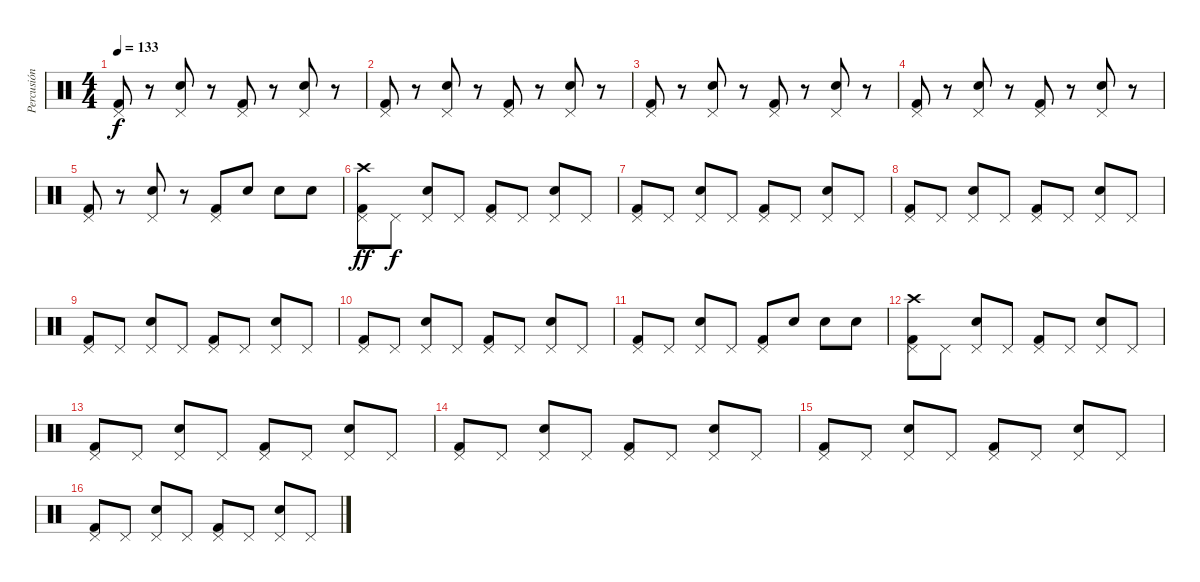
\track ("Percusión" "Percusión") {instrument percussion}
\staff {score}
\articulation defaults
\ts (4 4)
\tempo 133
\clef neutral
\ks c
("Pedal Hi-Hat (hit)" "Kick (hit) 2").8{dy f} r.8 ("Electric Snare (hit)" "Pedal Hi-Hat (hit)").8 r.8 ("Pedal Hi-Hat (hit)" "Kick (hit) 2").8 r.8 ("Electric Snare (hit)" "Pedal Hi-Hat (hit)").8 r.8 |
("Pedal Hi-Hat (hit)" "Kick (hit) 2").8 r.8 ("Electric Snare (hit)" "Pedal Hi-Hat (hit)").8 r.8 ("Pedal Hi-Hat (hit)" "Kick (hit) 2").8 r.8 ("Electric Snare (hit)" "Pedal Hi-Hat (hit)").8 r.8 |
("Pedal Hi-Hat (hit)" "Kick (hit) 2").8 r.8 ("Electric Snare (hit)" "Pedal Hi-Hat (hit)").8 r.8 ("Pedal Hi-Hat (hit)" "Kick (hit) 2").8 r.8 ("Electric Snare (hit)" "Pedal Hi-Hat (hit)").8 r.8 |
("Pedal Hi-Hat (hit)" "Kick (hit) 2").8 r.8 ("Electric Snare (hit)" "Pedal Hi-Hat (hit)").8 r.8 ("Pedal Hi-Hat (hit)" "Kick (hit) 2").8 r.8 ("Electric Snare (hit)" "Pedal Hi-Hat (hit)").8 r.8 |
("Pedal Hi-Hat (hit)" "Kick (hit) 2").8 r.8 ("Electric Snare (hit)" "Pedal Hi-Hat (hit)").8 r.8 ("Pedal Hi-Hat (hit)" "Kick (hit) 2").8 "Electric Snare (hit)".8 "Electric Snare (hit)".8 "Electric Snare (hit)".8 |
("Crash high (hit)" "Pedal Hi-Hat (hit)" "Kick (hit) 2").8{dy ff} "Pedal Hi-Hat (hit)".8{dy f} ("Electric Snare (hit)" "Pedal Hi-Hat (hit)").8 "Pedal Hi-Hat (hit)".8 ("Pedal Hi-Hat (hit)" "Kick (hit) 2").8 "Pedal Hi-Hat (hit)".8 ("Electric Snare (hit)" "Pedal Hi-Hat (hit)").8 "Pedal Hi-Hat (hit)".8 |
("Pedal Hi-Hat (hit)" "Kick (hit) 2").8 "Pedal Hi-Hat (hit)".8 ("Electric Snare (hit)" "Pedal Hi-Hat (hit)").8 "Pedal Hi-Hat (hit)".8 ("Pedal Hi-Hat (hit)" "Kick (hit) 2").8 "Pedal Hi-Hat (hit)".8 ("Electric Snare (hit)" "Pedal Hi-Hat (hit)").8 "Pedal Hi-Hat (hit)".8 |
("Pedal Hi-Hat (hit)" "Kick (hit) 2").8 "Pedal Hi-Hat (hit)".8 ("Electric Snare (hit)" "Pedal Hi-Hat (hit)").8 "Pedal Hi-Hat (hit)".8 ("Pedal Hi-Hat (hit)" "Kick (hit) 2").8 "Pedal Hi-Hat (hit)".8 ("Electric Snare (hit)" "Pedal Hi-Hat (hit)").8 "Pedal Hi-Hat (hit)".8 |
("Pedal Hi-Hat (hit)" "Kick (hit) 2").8 "Pedal Hi-Hat (hit)".8 ("Electric Snare (hit)" "Pedal Hi-Hat (hit)").8 "Pedal Hi-Hat (hit)".8 ("Pedal Hi-Hat (hit)" "Kick (hit) 2").8 "Pedal Hi-Hat (hit)".8 ("Electric Snare (hit)" "Pedal Hi-Hat (hit)").8 "Pedal Hi-Hat (hit)".8 |
("Pedal Hi-Hat (hit)" "Kick (hit) 2").8 "Pedal Hi-Hat (hit)".8 ("Electric Snare (hit)" "Pedal Hi-Hat (hit)").8 "Pedal Hi-Hat (hit)".8 ("Pedal Hi-Hat (hit)" "Kick (hit) 2").8 "Pedal Hi-Hat (hit)".8 ("Electric Snare (hit)" "Pedal Hi-Hat (hit)").8 "Pedal Hi-Hat (hit)".8 |
("Pedal Hi-Hat (hit)" "Kick (hit) 2").8 "Pedal Hi-Hat (hit)".8 ("Electric Snare (hit)" "Pedal Hi-Hat (hit)").8 "Pedal Hi-Hat (hit)".8 ("Pedal Hi-Hat (hit)" "Kick (hit) 2").8 "Electric Snare (hit)".8 "Electric Snare (hit)".8 "Electric Snare (hit)".8 |
("Crash high (hit)" "Pedal Hi-Hat (hit)" "Kick (hit) 2").8 "Pedal Hi-Hat (hit)".8 ("Electric Snare (hit)" "Pedal Hi-Hat (hit)").8 "Pedal Hi-Hat (hit)".8 ("Pedal Hi-Hat (hit)" "Kick (hit) 2").8 "Pedal Hi-Hat (hit)".8 ("Electric Snare (hit)" "Pedal Hi-Hat (hit)").8 "Pedal Hi-Hat (hit)".8 |
("Pedal Hi-Hat (hit)" "Kick (hit) 2").8 "Pedal Hi-Hat (hit)".8 ("Electric Snare (hit)" "Pedal Hi-Hat (hit)").8 "Pedal Hi-Hat (hit)".8 ("Pedal Hi-Hat (hit)" "Kick (hit) 2").8 "Pedal Hi-Hat (hit)".8 ("Electric Snare (hit)" "Pedal Hi-Hat (hit)").8 "Pedal Hi-Hat (hit)".8 |
("Pedal Hi-Hat (hit)" "Kick (hit) 2").8 "Pedal Hi-Hat (hit)".8 ("Electric Snare (hit)" "Pedal Hi-Hat (hit)").8 "Pedal Hi-Hat (hit)".8 ("Pedal Hi-Hat (hit)" "Kick (hit) 2").8 "Pedal Hi-Hat (hit)".8 ("Electric Snare (hit)" "Pedal Hi-Hat (hit)").8 "Pedal Hi-Hat (hit)".8 |
("Pedal Hi-Hat (hit)" "Kick (hit) 2").8 "Pedal Hi-Hat (hit)".8 ("Electric Snare (hit)" "Pedal Hi-Hat (hit)").8 "Pedal Hi-Hat (hit)".8 ("Pedal Hi-Hat (hit)" "Kick (hit) 2").8 "Pedal Hi-Hat (hit)".8 ("Electric Snare (hit)" "Pedal Hi-Hat (hit)").8 "Pedal Hi-Hat (hit)".8 |
("Pedal Hi-Hat (hit)" "Kick (hit) 2").8 "Pedal Hi-Hat (hit)".8 ("Electric Snare (hit)" "Pedal Hi-Hat (hit)").8 "Pedal Hi-Hat (hit)".8 ("Pedal Hi-Hat (hit)" "Kick (hit) 2").8 "Pedal Hi-Hat (hit)".8 ("Electric Snare (hit)" "Pedal Hi-Hat (hit)").8 "Pedal Hi-Hat (hit)".8
